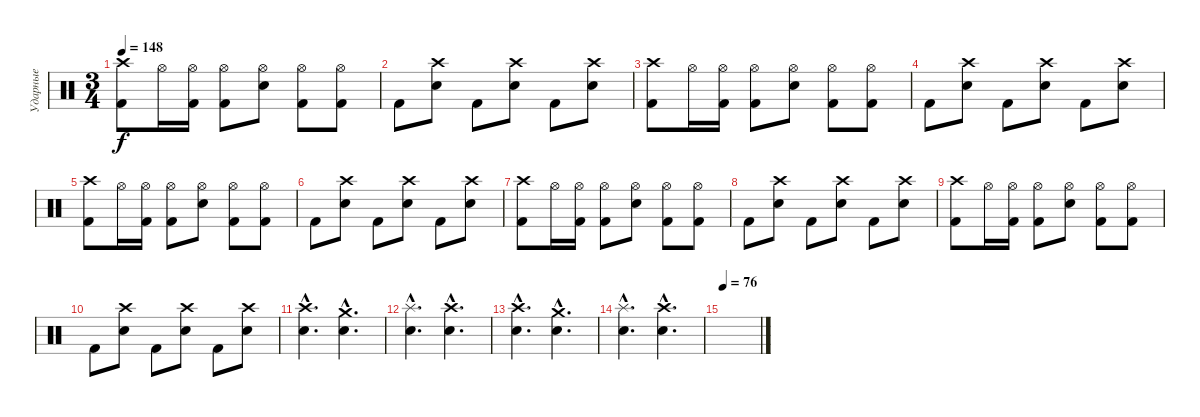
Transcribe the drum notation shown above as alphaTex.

\track ("Ударные" "Ударные") {instrument percussion}
\staff {score}
\articulation defaults
\ts (3 4)
\tempo 148
\clef neutral
\ks c
("Crash high (hit)" "Kick (hit) 2").8{dy f} "Hi-Hat (open)".16 ("Hi-Hat (open)" "Kick (hit) 2").16 ("Hi-Hat (open)" "Kick (hit) 2").8 ("Hi-Hat (open)" "Electric Snare (hit)").8 ("Hi-Hat (open)" "Kick (hit) 2").8 ("Hi-Hat (open)" "Kick (hit) 2").8 |
"Kick (hit) 2".8 ("Crash high (hit)" "Electric Snare (hit)").8 "Kick (hit) 2".8 ("Crash high (hit)" "Electric Snare (hit)").8 "Kick (hit) 2".8 ("Crash high (hit)" "Electric Snare (hit)").8 |
("Crash high (hit)" "Kick (hit) 2").8 "Hi-Hat (open)".16 ("Hi-Hat (open)" "Kick (hit) 2").16 ("Hi-Hat (open)" "Kick (hit) 2").8 ("Hi-Hat (open)" "Electric Snare (hit)").8 ("Hi-Hat (open)" "Kick (hit) 2").8 ("Hi-Hat (open)" "Kick (hit) 2").8 |
"Kick (hit) 2".8 ("Crash high (hit)" "Electric Snare (hit)").8 "Kick (hit) 2".8 ("Crash high (hit)" "Electric Snare (hit)").8 "Kick (hit) 2".8 ("Crash high (hit)" "Electric Snare (hit)").8 |
("Crash high (hit)" "Kick (hit) 2").8 "Hi-Hat (open)".16 ("Hi-Hat (open)" "Kick (hit) 2").16 ("Hi-Hat (open)" "Kick (hit) 2").8 ("Hi-Hat (open)" "Electric Snare (hit)").8 ("Hi-Hat (open)" "Kick (hit) 2").8 ("Hi-Hat (open)" "Kick (hit) 2").8 |
"Kick (hit) 2".8 ("Crash high (hit)" "Electric Snare (hit)").8 "Kick (hit) 2".8 ("Crash high (hit)" "Electric Snare (hit)").8 "Kick (hit) 2".8 ("Crash high (hit)" "Electric Snare (hit)").8 |
("Crash high (hit)" "Kick (hit) 2").8 "Hi-Hat (open)".16 ("Hi-Hat (open)" "Kick (hit) 2").16 ("Hi-Hat (open)" "Kick (hit) 2").8 ("Hi-Hat (open)" "Electric Snare (hit)").8 ("Hi-Hat (open)" "Kick (hit) 2").8 ("Hi-Hat (open)" "Kick (hit) 2").8 |
"Kick (hit) 2".8 ("Crash high (hit)" "Electric Snare (hit)").8 "Kick (hit) 2".8 ("Crash high (hit)" "Electric Snare (hit)").8 "Kick (hit) 2".8 ("Crash high (hit)" "Electric Snare (hit)").8 |
("Crash high (hit)" "Kick (hit) 2").8 "Hi-Hat (open)".16 ("Hi-Hat (open)" "Kick (hit) 2").16 ("Hi-Hat (open)" "Kick (hit) 2").8 ("Hi-Hat (open)" "Electric Snare (hit)").8 ("Hi-Hat (open)" "Kick (hit) 2").8 ("Hi-Hat (open)" "Kick (hit) 2").8 |
"Kick (hit) 2".8 ("Crash high (hit)" "Electric Snare (hit)").8 "Kick (hit) 2".8 ("Crash high (hit)" "Electric Snare (hit)").8 "Kick (hit) 2".8 ("Crash high (hit)" "Electric Snare (hit)").8 |
("Crash high (hit)"{hac} "Electric Snare (hit)"{hac}).4{d} ("Crash medium (hit)"{hac} "Electric Snare (hit)"{hac}).4{d} |
("Splash (hit)"{hac} "Electric Snare (hit)"{hac}).4{d} ("Crash high (hit)"{hac} "Electric Snare (hit)"{hac}).4{d} |
("Crash high (hit)"{hac} "Electric Snare (hit)"{hac}).4{d} ("Crash medium (hit)"{hac} "Electric Snare (hit)"{hac}).4{d} |
("Splash (hit)"{hac} "Electric Snare (hit)"{hac}).4{d} ("Crash high (hit)"{hac} "Electric Snare (hit)"{hac}).4{d} |
\tempo 76
